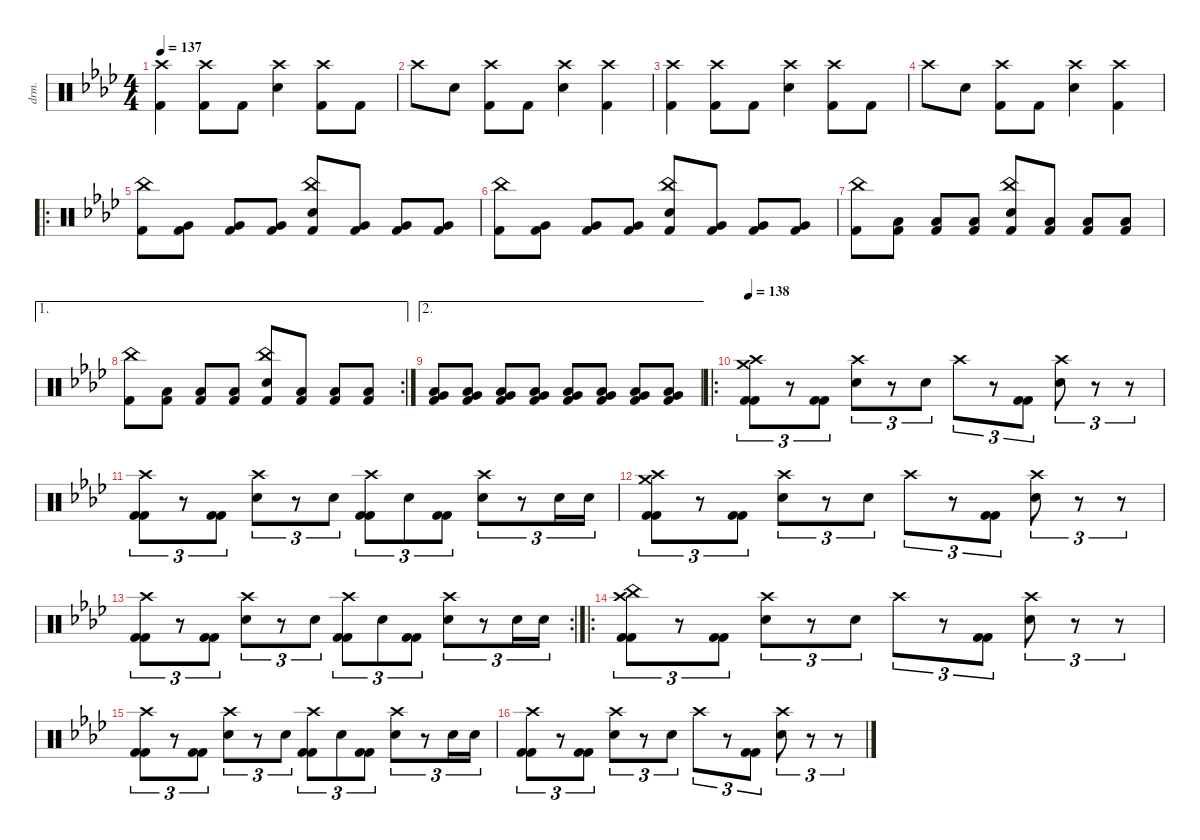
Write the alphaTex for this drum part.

\defaultSystemsLayout 4
\hideDynamics
\bracketExtendMode nobrackets
\otherSystemsTrackNameOrientation horizontal
\track ("Drums" "drm.") {defaultSystemsLayout 4 instrument percussion}
\staff {score}
\articulation defaults
\ts (4 4)
\tempo 137
\clef neutral
\ks ab
("Crash high (hit)"{acc forcenatural} "Kick (hit) 2"{acc forcenatural}).4{dy f beam Down} ("Crash high (hit)"{acc forcenatural} "Kick (hit) 2"{acc forcenatural}).8{beam Down} "Kick (hit) 2"{acc forcenatural}.8{beam Down} ("Crash high (hit)"{acc forcenatural} "Snare (hit) 2"{acc forcenatural}).4{beam Down} ("Crash high (hit)"{acc forcenatural} "Kick (hit) 2"{acc forcenatural}).8{beam Down} "Kick (hit) 2"{acc forcenatural}.8{beam Down} |
"Crash high (hit)"{acc forcenatural}.8{beam Down} "Snare (hit) 2"{acc forcenatural}.8{beam Down} ("Crash high (hit)"{acc forcenatural} "Kick (hit) 2"{acc forcenatural}).8{beam Down} "Kick (hit) 2"{acc forcenatural}.8{beam Down} ("Crash high (hit)"{acc forcenatural} "Snare (hit) 2"{acc forcenatural}).4{beam Down} ("Crash high (hit)"{acc forcenatural} "Kick (hit) 2"{acc forcenatural}).4{beam Down} |
("Crash high (hit)"{acc forcenatural} "Kick (hit) 2"{acc forcenatural}).4{beam Down} ("Crash high (hit)"{acc forcenatural} "Kick (hit) 2"{acc forcenatural}).8{beam Down} "Kick (hit) 2"{acc forcenatural}.8{beam Down} ("Crash high (hit)"{acc forcenatural} "Snare (hit) 2"{acc forcenatural}).4{beam Down} ("Crash high (hit)"{acc forcenatural} "Kick (hit) 2"{acc forcenatural}).8{beam Down} "Kick (hit) 2"{acc forcenatural}.8{beam Down} |
"Crash high (hit)"{acc forcenatural}.8{beam Down} "Snare (hit) 2"{acc forcenatural}.8{beam Down} ("Crash high (hit)"{acc forcenatural} "Kick (hit) 2"{acc forcenatural}).8{beam Down} "Kick (hit) 2"{acc forcenatural}.8{beam Down} ("Crash high (hit)"{acc forcenatural} "Snare (hit) 2"{acc forcenatural}).4{beam Down} ("Crash high (hit)"{acc forcenatural} "Kick (hit) 2"{acc forcenatural}).4{beam Down} |
\ro
("China (hit)"{acc forcenatural} "Kick (hit) 2"{acc forcenatural}).8{beam Down} ("Very Low Tom (hit)"{acc forcenatural} "Kick (hit) 2"{acc forcenatural}).8{beam Down} ("Very Low Tom (hit)"{acc forcenatural} "Kick (hit) 2"{acc forcenatural}).8{beam Up} ("Very Low Tom (hit)"{acc forcenatural} "Kick (hit) 2"{acc forcenatural}).8{beam Up} ("China (hit)"{acc forcenatural} "Snare (hit) 2"{acc forcenatural} "Kick (hit) 2"{acc forcenatural}).8{beam Up} ("Very Low Tom (hit)"{acc forcenatural} "Kick (hit) 2"{acc forcenatural}).8{beam Up} ("Very Low Tom (hit)"{acc forcenatural} "Kick (hit) 2"{acc forcenatural}).8{beam Up} ("Very Low Tom (hit)"{acc forcenatural} "Kick (hit) 2"{acc forcenatural}).8{beam Up} |
("China (hit)"{acc forcenatural} "Kick (hit) 2"{acc forcenatural}).8{beam Down} ("Very Low Tom (hit)"{acc forcenatural} "Kick (hit) 2"{acc forcenatural}).8{beam Down} ("Very Low Tom (hit)"{acc forcenatural} "Kick (hit) 2"{acc forcenatural}).8{beam Up} ("Very Low Tom (hit)"{acc forcenatural} "Kick (hit) 2"{acc forcenatural}).8{beam Up} ("China (hit)"{acc forcenatural} "Snare (hit) 2"{acc forcenatural} "Kick (hit) 2"{acc forcenatural}).8{beam Up} ("Very Low Tom (hit)"{acc forcenatural} "Kick (hit) 2"{acc forcenatural}).8{beam Up} ("Very Low Tom (hit)"{acc forcenatural} "Kick (hit) 2"{acc forcenatural}).8{beam Up} ("Very Low Tom (hit)"{acc forcenatural} "Kick (hit) 2"{acc forcenatural}).8{beam Up} |
("China (hit)"{acc forcenatural} "Kick (hit) 2"{acc forcenatural}).8{beam Down} ("Low Floor Tom (hit)"{acc forcenatural} "Kick (hit) 2"{acc forcenatural}).8{beam Down} ("Low Floor Tom (hit)"{acc forcenatural} "Kick (hit) 2"{acc forcenatural}).8{beam Up} ("Low Floor Tom (hit)"{acc forcenatural} "Kick (hit) 2"{acc forcenatural}).8{beam Up} ("China (hit)"{acc forcenatural} "Snare (hit) 2"{acc forcenatural} "Kick (hit) 2"{acc forcenatural}).8{beam Up} ("Low Floor Tom (hit)"{acc forcenatural} "Kick (hit) 2"{acc forcenatural}).8{beam Up} ("Low Floor Tom (hit)"{acc forcenatural} "Kick (hit) 2"{acc forcenatural}).8{beam Up} ("Low Floor Tom (hit)"{acc forcenatural} "Kick (hit) 2"{acc forcenatural}).8{beam Up} |
\ae 1
\rc 2
("China (hit)"{acc forcenatural} "Kick (hit) 2"{acc forcenatural}).8{beam Down} ("Low Floor Tom (hit)"{acc forcenatural} "Kick (hit) 2"{acc forcenatural}).8{beam Down} ("Low Floor Tom (hit)"{acc forcenatural} "Kick (hit) 2"{acc forcenatural}).8{beam Up} ("Low Floor Tom (hit)"{acc forcenatural} "Kick (hit) 2"{acc forcenatural}).8{beam Up} ("China (hit)"{acc forcenatural} "Snare (hit) 2"{acc forcenatural} "Kick (hit) 2"{acc forcenatural}).8{beam Up} ("Low Floor Tom (hit)"{acc forcenatural} "Kick (hit) 2"{acc forcenatural}).8{beam Up} ("Low Floor Tom (hit)"{acc forcenatural} "Kick (hit) 2"{acc forcenatural}).8{beam Up} ("Low Floor Tom (hit)"{acc forcenatural} "Kick (hit) 2"{acc forcenatural}).8{beam Up} |
\ae 2
("Very Low Tom (hit)"{acc forcenatural} "Low Floor Tom (hit)"{acc forcenatural} "Kick (hit) 2"{acc forcenatural}).8{beam Up} ("Very Low Tom (hit)"{acc forcenatural} "Low Floor Tom (hit)"{acc forcenatural} "Kick (hit) 2"{acc forcenatural}).8{beam Up} ("Very Low Tom (hit)"{acc forcenatural} "Low Floor Tom (hit)"{acc forcenatural} "Kick (hit) 2"{acc forcenatural}).8{beam Up} ("Very Low Tom (hit)"{acc forcenatural} "Low Floor Tom (hit)"{acc forcenatural} "Kick (hit) 2"{acc forcenatural}).8{beam Up} ("Very Low Tom (hit)"{acc forcenatural} "Low Floor Tom (hit)"{acc forcenatural} "Kick (hit) 2"{acc forcenatural}).8{beam Up} ("Very Low Tom (hit)"{acc forcenatural} "Low Floor Tom (hit)"{acc forcenatural} "Kick (hit) 2"{acc forcenatural}).8{beam Up} ("Very Low Tom (hit)"{acc forcenatural} "Low Floor Tom (hit)"{acc forcenatural} "Kick (hit) 2"{acc forcenatural}).8{beam Up} ("Very Low Tom (hit)"{acc forcenatural} "Low Floor Tom (hit)"{acc forcenatural} "Kick (hit) 2"{acc forcenatural}).8{beam Up} |
\ro
\tempo 138
("Crash high (hit)"{acc forcenatural} "Crash medium (hit)"{acc forcenatural} "Kick (hit) 2"{acc forcenatural} "Kick (hit) 2"{acc forcenatural}).8{tu (3 2) beam Down} r.8{tu (3 2) beam Down} ("Kick (hit) 2"{acc forcenatural} "Kick (hit) 2"{acc forcenatural}).8{tu (3 2) beam Down} ("Crash high (hit)"{acc forcenatural} "Snare (hit) 2"{acc forcenatural}).8{tu (3 2) beam Down} r.8{tu (3 2) beam Down} "Snare (hit) 2"{acc forcenatural}.8{tu (3 2) beam Down} "Crash high (hit)"{acc forcenatural}.8{tu (3 2) beam Down} r.8{tu (3 2) beam Down} ("Kick (hit) 2"{acc forcenatural} "Kick (hit) 2"{acc forcenatural}).8{tu (3 2) beam Down} ("Crash high (hit)"{acc forcenatural} "Snare (hit) 2"{acc forcenatural}).8{tu (3 2) beam Down} r.8{tu (3 2) beam Down} r.8{tu (3 2) beam Down} |
("Crash high (hit)"{acc forcenatural} "Kick (hit) 2"{acc forcenatural} "Kick (hit) 2"{acc forcenatural}).8{tu (3 2) beam Down} r.8{tu (3 2) beam Down} ("Kick (hit) 2"{acc forcenatural} "Kick (hit) 2"{acc forcenatural}).8{tu (3 2) beam Down} ("Crash high (hit)"{acc forcenatural} "Snare (hit) 2"{acc forcenatural}).8{tu (3 2) beam Down} r.8{tu (3 2) beam Down} "Snare (hit) 2"{acc forcenatural}.8{tu (3 2) beam Down} ("Crash high (hit)"{acc forcenatural} "Kick (hit) 2"{acc forcenatural} "Kick (hit) 2"{acc forcenatural}).8{tu (3 2) beam Down} "Snare (hit) 2"{acc forcenatural}.8{tu (3 2) beam Down} ("Kick (hit) 2"{acc forcenatural} "Kick (hit) 2"{acc forcenatural}).8{tu (3 2) beam Down} ("Crash high (hit)"{acc forcenatural} "Snare (hit) 2"{acc forcenatural}).8{tu (3 2) beam Down} r.8{tu (3 2) beam Down} "Snare (hit) 2"{acc forcenatural}.16{tu (3 2) beam Down} "Snare (hit) 2"{acc forcenatural}.16{tu (3 2) beam Down} |
("Crash high (hit)"{acc forcenatural} "Crash medium (hit)"{acc forcenatural} "Kick (hit) 2"{acc forcenatural} "Kick (hit) 2"{acc forcenatural}).8{tu (3 2) beam Down} r.8{tu (3 2) beam Down} ("Kick (hit) 2"{acc forcenatural} "Kick (hit) 2"{acc forcenatural}).8{tu (3 2) beam Down} ("Crash high (hit)"{acc forcenatural} "Snare (hit) 2"{acc forcenatural}).8{tu (3 2) beam Down} r.8{tu (3 2) beam Down} "Snare (hit) 2"{acc forcenatural}.8{tu (3 2) beam Down} "Crash high (hit)"{acc forcenatural}.8{tu (3 2) beam Down} r.8{tu (3 2) beam Down} ("Kick (hit) 2"{acc forcenatural} "Kick (hit) 2"{acc forcenatural}).8{tu (3 2) beam Down} ("Crash high (hit)"{acc forcenatural} "Snare (hit) 2"{acc forcenatural}).8{tu (3 2) beam Down} r.8{tu (3 2) beam Down} r.8{tu (3 2) beam Down} |
\rc 2
("Crash high (hit)"{acc forcenatural} "Kick (hit) 2"{acc forcenatural} "Kick (hit) 2"{acc forcenatural}).8{tu (3 2) beam Down} r.8{tu (3 2) beam Down} ("Kick (hit) 2"{acc forcenatural} "Kick (hit) 2"{acc forcenatural}).8{tu (3 2) beam Down} ("Crash high (hit)"{acc forcenatural} "Snare (hit) 2"{acc forcenatural}).8{tu (3 2) beam Down} r.8{tu (3 2) beam Down} "Snare (hit) 2"{acc forcenatural}.8{tu (3 2) beam Down} ("Crash high (hit)"{acc forcenatural} "Kick (hit) 2"{acc forcenatural} "Kick (hit) 2"{acc forcenatural}).8{tu (3 2) beam Down} "Snare (hit) 2"{acc forcenatural}.8{tu (3 2) beam Down} ("Kick (hit) 2"{acc forcenatural} "Kick (hit) 2"{acc forcenatural}).8{tu (3 2) beam Down} ("Crash high (hit)"{acc forcenatural} "Snare (hit) 2"{acc forcenatural}).8{tu (3 2) beam Down} r.8{tu (3 2) beam Down} "Snare (hit) 2"{acc forcenatural}.16{tu (3 2) beam Down} "Snare (hit) 2"{acc forcenatural}.16{tu (3 2) beam Down} |
\ro
("China (hit)"{acc forcenatural} "Crash high (hit)"{acc forcenatural} "Kick (hit) 2"{acc forcenatural} "Kick (hit) 2"{acc forcenatural}).8{tu (3 2) beam Down} r.8{tu (3 2) beam Down} ("Kick (hit) 2"{acc forcenatural} "Kick (hit) 2"{acc forcenatural}).8{tu (3 2) beam Down} ("Crash high (hit)"{acc forcenatural} "Snare (hit) 2"{acc forcenatural}).8{tu (3 2) beam Down} r.8{tu (3 2) beam Down} "Snare (hit) 2"{acc forcenatural}.8{tu (3 2) beam Down} "Crash high (hit)"{acc forcenatural}.8{tu (3 2) beam Down} r.8{tu (3 2) beam Down} ("Kick (hit) 2"{acc forcenatural} "Kick (hit) 2"{acc forcenatural}).8{tu (3 2) beam Down} ("Crash high (hit)"{acc forcenatural} "Snare (hit) 2"{acc forcenatural}).8{tu (3 2) beam Down} r.8{tu (3 2) beam Down} r.8{tu (3 2) beam Down} |
("Crash high (hit)"{acc forcenatural} "Kick (hit) 2"{acc forcenatural} "Kick (hit) 2"{acc forcenatural}).8{tu (3 2) beam Down} r.8{tu (3 2) beam Down} ("Kick (hit) 2"{acc forcenatural} "Kick (hit) 2"{acc forcenatural}).8{tu (3 2) beam Down} ("Crash high (hit)"{acc forcenatural} "Snare (hit) 2"{acc forcenatural}).8{tu (3 2) beam Down} r.8{tu (3 2) beam Down} "Snare (hit) 2"{acc forcenatural}.8{tu (3 2) beam Down} ("Crash high (hit)"{acc forcenatural} "Kick (hit) 2"{acc forcenatural} "Kick (hit) 2"{acc forcenatural}).8{tu (3 2) beam Down} "Snare (hit) 2"{acc forcenatural}.8{tu (3 2) beam Down} ("Kick (hit) 2"{acc forcenatural} "Kick (hit) 2"{acc forcenatural}).8{tu (3 2) beam Down} ("Crash high (hit)"{acc forcenatural} "Snare (hit) 2"{acc forcenatural}).8{tu (3 2) beam Down} r.8{tu (3 2) beam Down} "Snare (hit) 2"{acc forcenatural}.16{tu (3 2) beam Down} "Snare (hit) 2"{acc forcenatural}.16{tu (3 2) beam Down} |
("Crash high (hit)"{acc forcenatural} "Kick (hit) 2"{acc forcenatural} "Kick (hit) 2"{acc forcenatural}).8{tu (3 2) beam Down} r.8{tu (3 2) beam Down} ("Kick (hit) 2"{acc forcenatural} "Kick (hit) 2"{acc forcenatural}).8{tu (3 2) beam Down} ("Crash high (hit)"{acc forcenatural} "Snare (hit) 2"{acc forcenatural}).8{tu (3 2) beam Down} r.8{tu (3 2) beam Down} "Snare (hit) 2"{acc forcenatural}.8{tu (3 2) beam Down} "Crash high (hit)"{acc forcenatural}.8{tu (3 2) beam Down} r.8{tu (3 2) beam Down} ("Kick (hit) 2"{acc forcenatural} "Kick (hit) 2"{acc forcenatural}).8{tu (3 2) beam Down} ("Crash high (hit)"{acc forcenatural} "Snare (hit) 2"{acc forcenatural}).8{tu (3 2) beam Down} r.8{tu (3 2) beam Down} r.8{tu (3 2) beam Down}
